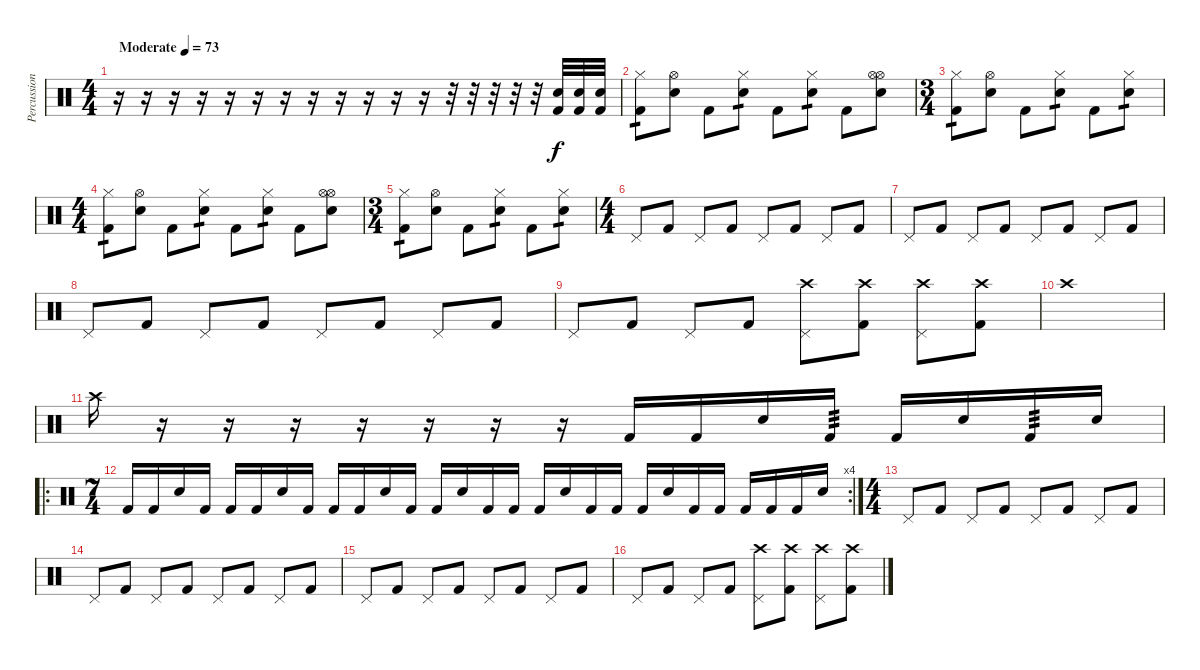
\track ("Percussion" "Percussion") {instrument percussion}
\staff {score}
\articulation defaults
\ts (4 4)
\tempo (73 "Moderate")
\clef neutral
\ks c
r.16{dy f} r.16 r.16 r.16 r.16 r.16 r.16 r.16 r.16 r.16 r.16 r.16 r.32 r.32 r.32 r.32 r.32 ("Snare (hit) 2" "Kick (hit) 2").32 ("Snare (hit) 2" "Kick (hit) 2").32 ("Snare (hit) 2" "Kick (hit) 2").32 |
("Hi-Hat (closed)" "Kick (hit) 2").8{tp 1} ("Snare (hit) 2" "Hi-Hat (open)").8 "Kick (hit) 2".8 ("Hi-Hat (closed)" "Snare (hit) 2").8{tp 1} "Kick (hit) 2".8 ("Hi-Hat (closed)" "Snare (hit) 2").8{tp 1} "Kick (hit) 2".8 ("Hi-Hat (open)" "Hi-Hat (open)" "Snare (hit) 2").8 |
\ts (3 4)
("Hi-Hat (closed)" "Kick (hit) 2").8{tp 1} ("Snare (hit) 2" "Hi-Hat (open)").8 "Kick (hit) 2".8 ("Hi-Hat (closed)" "Snare (hit) 2").8{tp 1} "Kick (hit) 2".8 ("Hi-Hat (closed)" "Snare (hit) 2").8{tp 1} |
\ts (4 4)
("Hi-Hat (closed)" "Kick (hit) 2").8{tp 1} ("Snare (hit) 2" "Hi-Hat (open)").8 "Kick (hit) 2".8 ("Hi-Hat (closed)" "Snare (hit) 2").8{tp 1} "Kick (hit) 2".8 ("Hi-Hat (closed)" "Snare (hit) 2").8{tp 1} "Kick (hit) 2".8 ("Hi-Hat (open)" "Hi-Hat (open)" "Snare (hit) 2").8 |
\ts (3 4)
("Hi-Hat (closed)" "Kick (hit) 2").8{tp 1} ("Snare (hit) 2" "Hi-Hat (open)").8 "Kick (hit) 2".8 ("Hi-Hat (closed)" "Snare (hit) 2").8{tp 1} "Kick (hit) 2".8 ("Hi-Hat (closed)" "Snare (hit) 2").8{tp 1} |
\ts (4 4)
"Pedal Hi-Hat (hit)".8 "Kick (hit) 2".8 "Pedal Hi-Hat (hit)".8 "Kick (hit) 2".8 "Pedal Hi-Hat (hit)".8 "Kick (hit) 2".8 "Pedal Hi-Hat (hit)".8 "Kick (hit) 2".8 |
"Pedal Hi-Hat (hit)".8 "Kick (hit) 2".8 "Pedal Hi-Hat (hit)".8 "Kick (hit) 2".8 "Pedal Hi-Hat (hit)".8 "Kick (hit) 2".8 "Pedal Hi-Hat (hit)".8 "Kick (hit) 2".8 |
"Pedal Hi-Hat (hit)".8 "Kick (hit) 2".8 "Pedal Hi-Hat (hit)".8 "Kick (hit) 2".8 "Pedal Hi-Hat (hit)".8 "Kick (hit) 2".8 "Pedal Hi-Hat (hit)".8 "Kick (hit) 2".8 |
"Pedal Hi-Hat (hit)".8 "Kick (hit) 2".8 "Pedal Hi-Hat (hit)".8 "Kick (hit) 2".8 ("Crash high (hit)" "Pedal Hi-Hat (hit)").8 ("Crash high (hit)" "Kick (hit) 2").8 ("Crash high (hit)" "Pedal Hi-Hat (hit)").8 ("Crash high (hit)" "Kick (hit) 2").8 |
"Crash high (hit)".1 |
"Crash high (hit)".16 r.16 r.16 r.16 r.16 r.16 r.16 r.16 "Kick (hit) 2".16 "Kick (hit) 2".16 "Snare (hit) 2".16 "Kick (hit) 2".16{tp 3} "Kick (hit) 2".16 "Snare (hit) 2".16 "Kick (hit) 2".16{tp 3} "Snare (hit) 2".16 |
\ro
\rc 4
\ts (7 4)
"Kick (hit) 2".16{volume 11} "Kick (hit) 2".16 "Snare (hit) 2".16 "Kick (hit) 2".16 "Kick (hit) 2".16 "Kick (hit) 2".16 "Snare (hit) 2".16 "Kick (hit) 2".16 "Kick (hit) 2".16 "Kick (hit) 2".16 "Snare (hit) 2".16 "Kick (hit) 2".16 "Kick (hit) 2".16 "Snare (hit) 2".16 "Kick (hit) 2".16 "Kick (hit) 2".16 "Kick (hit) 2".16 "Snare (hit) 2".16 "Kick (hit) 2".16 "Kick (hit) 2".16 "Kick (hit) 2".16 "Snare (hit) 2".16 "Kick (hit) 2".16 "Kick (hit) 2".16 "Kick (hit) 2".16 "Kick (hit) 2".16 "Kick (hit) 2".16 "Snare (hit) 2".16 |
\ts (4 4)
"Pedal Hi-Hat (hit)".8{volume 13} "Kick (hit) 2".8 "Pedal Hi-Hat (hit)".8 "Kick (hit) 2".8 "Pedal Hi-Hat (hit)".8 "Kick (hit) 2".8 "Pedal Hi-Hat (hit)".8 "Kick (hit) 2".8 |
"Pedal Hi-Hat (hit)".8 "Kick (hit) 2".8 "Pedal Hi-Hat (hit)".8 "Kick (hit) 2".8 "Pedal Hi-Hat (hit)".8 "Kick (hit) 2".8 "Pedal Hi-Hat (hit)".8 "Kick (hit) 2".8 |
"Pedal Hi-Hat (hit)".8 "Kick (hit) 2".8 "Pedal Hi-Hat (hit)".8 "Kick (hit) 2".8 "Pedal Hi-Hat (hit)".8 "Kick (hit) 2".8 "Pedal Hi-Hat (hit)".8 "Kick (hit) 2".8 |
"Pedal Hi-Hat (hit)".8 "Kick (hit) 2".8 "Pedal Hi-Hat (hit)".8 "Kick (hit) 2".8 ("Crash high (hit)" "Pedal Hi-Hat (hit)").8 ("Crash high (hit)" "Kick (hit) 2").8 ("Crash high (hit)" "Pedal Hi-Hat (hit)").8 ("Crash high (hit)" "Kick (hit) 2").8
